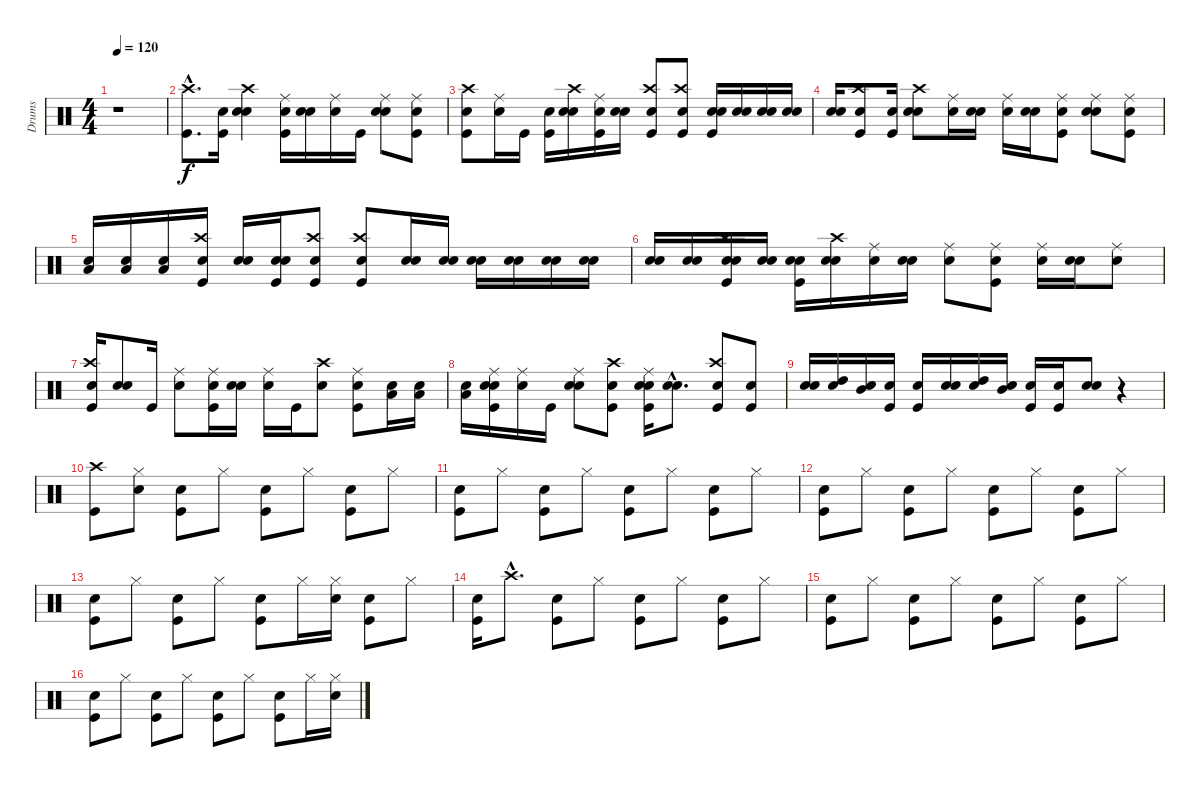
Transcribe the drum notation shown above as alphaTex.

\track ("Drums" "Drums") {instrument percussion}
\staff {score}
\articulation defaults
\ts (4 4)
\tempo 120
\clef neutral
\ks c
r.1{dy f} |
("Kick (hit)"{hac} "Crash high (hit)"{hac}).8{d} ("Snare (hit)" "Kick (hit)").16 ("Snare (hit)" "Electric Snare (hit)" "Crash high (hit)").4 ("Snare (hit)" "Kick (hit)" "Ride (middle)").16 ("Snare (hit)" "Electric Snare (hit)").16 ("Snare (hit)" "Ride (middle)").16 "Kick (hit)".16 ("Snare (hit)" "Electric Snare (hit)" "Ride (middle)").8 ("Snare (hit)" "Kick (hit)" "Ride (middle)").8 |
("Snare (hit)" "Kick (hit)" "Crash high (hit)").8 ("Snare (hit)" "Ride (middle)").16 "Kick (hit)".16 ("Snare (hit)" "Kick (hit)").16 ("Snare (hit)" "Electric Snare (hit)" "Crash high (hit)").16 ("Snare (hit)" "Kick (hit)" "Ride (middle)").16 ("Snare (hit)" "Electric Snare (hit)").16 ("Snare (hit)" "Kick (hit)" "Crash high (hit)").8 ("Snare (hit)" "Kick (hit)" "Crash high (hit)").8 ("Snare (hit)" "Kick (hit)" "Electric Snare (hit)").16 ("Snare (hit)" "Electric Snare (hit)").16 ("Snare (hit)" "Electric Snare (hit)").16 ("Snare (hit)" "Electric Snare (hit)").16 |
("Snare (hit)" "Electric Snare (hit)").16 ("Snare (hit)" "Kick (hit)" "Crash high (hit)").8 ("Snare (hit)" "Kick (hit)").16 ("Snare (hit)" "Electric Snare (hit)" "Crash high (hit)").8 ("Snare (hit)" "Ride (middle)").16 ("Snare (hit)" "Electric Snare (hit)").16 ("Snare (hit)" "Ride (middle)").16 ("Snare (hit)" "Electric Snare (hit)").16 ("Snare (hit)" "Kick (hit)" "Ride (middle)").8 ("Snare (hit)" "Electric Snare (hit)" "Ride (middle)").8 ("Snare (hit)" "Kick (hit)" "Ride (middle)").8 |
("Snare (hit)" "Low Tom (hit)").16 ("Snare (hit)" "Low Tom (hit)").16 ("Snare (hit)" "Low Tom (hit)").16 ("Snare (hit)" "Kick (hit)" "Crash high (hit)").16 ("Snare (hit)" "Electric Snare (hit)").16 ("Snare (hit)" "Kick (hit)" "Electric Snare (hit)").16 ("Snare (hit)" "Kick (hit)" "Crash high (hit)").8 ("Snare (hit)" "Kick (hit)" "Crash high (hit)").8 ("Snare (hit)" "Electric Snare (hit)").16 ("Snare (hit)" "Electric Snare (hit)").16 ("Snare (hit)" "Electric Snare (hit)").16 ("Snare (hit)" "Electric Snare (hit)").16 ("Snare (hit)" "Electric Snare (hit)").16 ("Snare (hit)" "Electric Snare (hit)").16 |
("Snare (hit)" "Electric Snare (hit)").16 ("Snare (hit)" "Electric Snare (hit)").16 ("Snare (hit)" "Kick (hit)" "Electric Snare (hit)" "Crash high (hit)").16 ("Snare (hit)" "Electric Snare (hit)").16 ("Snare (hit)" "Electric Snare (hit)" "Kick (hit)").16 ("Snare (hit)" "Electric Snare (hit)" "Crash high (hit)").16 ("Snare (hit)" "Ride (middle)").16 ("Snare (hit)" "Electric Snare (hit)").16 ("Snare (hit)" "Ride (middle)").8 ("Snare (hit)" "Kick (hit)" "Ride (middle)").8 ("Snare (hit)" "Ride (middle)").16 ("Snare (hit)" "Electric Snare (hit)").16 ("Snare (hit)" "Ride (middle)").8 |
("Snare (hit)" "Kick (hit)" "Crash high (hit)").16 ("Snare (hit)" "Electric Snare (hit)").8 "Kick (hit)".16 ("Snare (hit)" "Ride (middle)").8 ("Snare (hit)" "Kick (hit)" "Ride (middle)").16 ("Snare (hit)" "Electric Snare (hit)").16 ("Snare (hit)" "Ride (middle)").16 "Kick (hit)".16 ("Electric Snare (hit)" "Crash high (hit)").8 ("Snare (hit)" "Kick (hit)" "Ride (middle)").8 ("Snare (hit)" "Low Tom (hit)").16 ("Snare (hit)" "Low Tom (hit)").16 |
("Snare (hit)" "Low Tom (hit)").16 ("Snare (hit)" "Kick (hit)" "Electric Snare (hit)" "Ride (middle)").16 ("Snare (hit)" "Ride (middle)").16 "Kick (hit)".16 ("Snare (hit)" "Electric Snare (hit)" "Ride (middle)").8 ("Snare (hit)" "Kick (hit)" "Crash high (hit)").8 ("Snare (hit)" "Kick (hit)" "Electric Snare (hit)" "Ride (middle)").16 ("Snare (hit)"{hac} "Electric Snare (hit)"{hac}).8{d} ("Snare (hit)" "Kick (hit)" "Crash high (hit)").8 ("Snare (hit)" "Kick (hit)").8 |
("Snare (hit)" "Electric Snare (hit)").16 ("Snare (hit)" "High Tom (hit)").16 ("Snare (hit)" "Mid Tom (hit)").16 ("Snare (hit)" "Kick (hit)").16 ("Snare (hit)" "Kick (hit)").16 ("Snare (hit)" "Electric Snare (hit)").16 ("Snare (hit)" "High Tom (hit)").16 ("Snare (hit)" "Mid Tom (hit)").16 ("Snare (hit)" "Kick (hit)").16 ("Snare (hit)" "Kick (hit)").16 ("Snare (hit)" "Electric Snare (hit)").8 r.4 |
("Kick (hit)" "Crash high (hit)").8 ("Snare (hit)" "Hi-Hat (closed)").8 ("Snare (hit)" "Kick (hit)").8 "Hi-Hat (closed)".8 ("Snare (hit)" "Kick (hit)").8 "Hi-Hat (closed)".8 ("Snare (hit)" "Kick (hit)").8 "Hi-Hat (closed)".8 |
("Snare (hit)" "Kick (hit)").8 "Hi-Hat (closed)".8 ("Snare (hit)" "Kick (hit)").8 "Hi-Hat (closed)".8 ("Snare (hit)" "Kick (hit)").8 "Hi-Hat (closed)".8 ("Snare (hit)" "Kick (hit)").8 "Hi-Hat (closed)".8 |
("Snare (hit)" "Kick (hit)").8 "Hi-Hat (closed)".8 ("Snare (hit)" "Kick (hit)").8 "Hi-Hat (closed)".8 ("Snare (hit)" "Kick (hit)").8 "Hi-Hat (closed)".8 ("Snare (hit)" "Kick (hit)").8 "Hi-Hat (closed)".8 |
("Snare (hit)" "Kick (hit)").8 "Hi-Hat (closed)".8 ("Snare (hit)" "Kick (hit)").8 "Hi-Hat (closed)".8 ("Snare (hit)" "Kick (hit)").8 "Hi-Hat (closed)".16 ("Snare (hit)" "Hi-Hat (closed)").16 ("Snare (hit)" "Kick (hit)").8 "Hi-Hat (closed)".8 |
("Snare (hit)" "Kick (hit)").16 "Crash high (hit)"{hac}.8{d} ("Snare (hit)" "Kick (hit)").8 "Hi-Hat (closed)".8 ("Snare (hit)" "Kick (hit)").8 "Hi-Hat (closed)".8 ("Snare (hit)" "Kick (hit)").8 "Hi-Hat (closed)".8 |
("Snare (hit)" "Kick (hit)").8 "Hi-Hat (closed)".8 ("Snare (hit)" "Kick (hit)").8 "Hi-Hat (closed)".8 ("Snare (hit)" "Kick (hit)").8 "Hi-Hat (closed)".8 ("Snare (hit)" "Kick (hit)").8 "Hi-Hat (closed)".8 |
("Snare (hit)" "Kick (hit)").8 "Hi-Hat (closed)".8 ("Snare (hit)" "Kick (hit)").8 "Hi-Hat (closed)".8 ("Snare (hit)" "Kick (hit)").8 "Hi-Hat (closed)".8 ("Snare (hit)" "Kick (hit)").8 "Hi-Hat (closed)".16 ("Snare (hit)" "Hi-Hat (closed)").16
